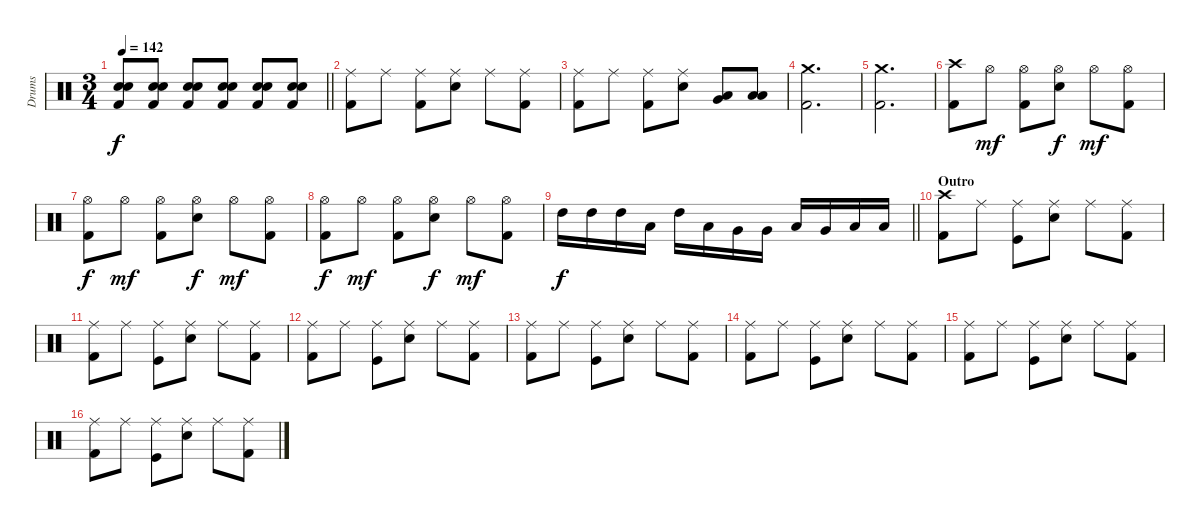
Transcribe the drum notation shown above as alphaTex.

\track ("Drums" "Drums") {instrument percussion}
\staff {score}
\articulation defaults
\ts (3 4)
\tempo 142
\clef neutral
\barLineRight lightlight
\ks c
("Electric Snare (hit)" "Snare (hit) 2" "Kick (hit) 2").8{dy f} ("Electric Snare (hit)" "Snare (hit) 2" "Kick (hit) 2").8 ("Electric Snare (hit)" "Snare (hit) 2" "Kick (hit) 2").8 ("Electric Snare (hit)" "Snare (hit) 2" "Kick (hit) 2").8 ("Electric Snare (hit)" "Snare (hit) 2" "Kick (hit) 2").8 ("Electric Snare (hit)" "Snare (hit) 2" "Kick (hit) 2").8 |
("Ride (middle)" "Kick (hit) 2").8 "Ride (middle)".8 ("Ride (middle)" "Kick (hit) 2").8 ("Ride (middle)" "Electric Snare (hit)").8 "Ride (middle)".8 ("Ride (middle)" "Kick (hit) 2").8 |
("Ride (middle)" "Kick (hit) 2").8 "Ride (middle)".8 ("Ride (middle)" "Kick (hit) 2").8 ("Ride (middle)" "Electric Snare (hit)").8 ("Low Tom (hit)" "Very Low Tom (hit)").8 ("Low Tom (hit)" "Low Floor Tom (hit)").8 |
("Crash medium (hit)" "Kick (hit) 2").2{d} |
("Crash medium (hit)" "Kick (hit) 2").2{d} |
("Crash high (hit)" "Kick (hit) 2").8 "Hi-Hat (open)".8{dy mf} ("Hi-Hat (open)" "Kick (hit) 2").8 ("Hi-Hat (open)" "Electric Snare (hit)").8{dy f} "Hi-Hat (open)".8{dy mf} ("Hi-Hat (open)" "Kick (hit) 2").8 |
("Hi-Hat (open)" "Kick (hit) 2").8{dy f} "Hi-Hat (open)".8{dy mf} ("Hi-Hat (open)" "Kick (hit) 2").8 ("Hi-Hat (open)" "Electric Snare (hit)").8{dy f} "Hi-Hat (open)".8{dy mf} ("Hi-Hat (open)" "Kick (hit) 2").8 |
("Hi-Hat (open)" "Kick (hit) 2").8{dy f} "Hi-Hat (open)".8{dy mf} ("Hi-Hat (open)" "Kick (hit) 2").8 ("Hi-Hat (open)" "Electric Snare (hit)").8{dy f} "Hi-Hat (open)".8{dy mf} ("Hi-Hat (open)" "Kick (hit) 2").8 |
\barLineRight lightlight "High Tom (hit)".16{dy f} "High Tom (hit)".16 "High Tom (hit)".16 "Low Tom (hit)".16 "High Tom (hit)".16 "Low Tom (hit)".16 "Very Low Tom (hit)".16 "Very Low Tom (hit)".16 "Low Tom (hit)".16 "Very Low Tom (hit)".16 "Low Floor Tom (hit)".16 "Low Floor Tom (hit)".16
|
\section ("" "Outro")
("Crash high (hit)" "Kick (hit) 2").8 "Ride (middle)".8 ("Ride (middle)" "Kick (hit)").8 ("Ride (middle)" "Electric Snare (hit)").8 "Ride (middle)".8 ("Ride (middle)" "Kick (hit) 2").8 |
("Ride (middle)" "Kick (hit) 2").8 "Ride (middle)".8 ("Ride (middle)" "Kick (hit)").8 ("Ride (middle)" "Electric Snare (hit)").8 "Ride (middle)".8 ("Ride (middle)" "Kick (hit) 2").8 |
("Ride (middle)" "Kick (hit) 2").8 "Ride (middle)".8 ("Ride (middle)" "Kick (hit)").8 ("Ride (middle)" "Electric Snare (hit)").8 "Ride (middle)".8 ("Ride (middle)" "Kick (hit) 2").8 |
("Ride (middle)" "Kick (hit) 2").8 "Ride (middle)".8 ("Ride (middle)" "Kick (hit)").8 ("Ride (middle)" "Electric Snare (hit)").8 "Ride (middle)".8 ("Ride (middle)" "Kick (hit) 2").8 |
("Ride (middle)" "Kick (hit) 2").8 "Ride (middle)".8 ("Ride (middle)" "Kick (hit)").8 ("Ride (middle)" "Electric Snare (hit)").8 "Ride (middle)".8 ("Ride (middle)" "Kick (hit) 2").8 |
("Ride (middle)" "Kick (hit) 2").8 "Ride (middle)".8 ("Ride (middle)" "Kick (hit)").8 ("Ride (middle)" "Electric Snare (hit)").8 "Ride (middle)".8 ("Ride (middle)" "Kick (hit) 2").8 |
("Ride (middle)" "Kick (hit) 2").8 "Ride (middle)".8 ("Ride (middle)" "Kick (hit)").8 ("Ride (middle)" "Electric Snare (hit)").8 "Ride (middle)".8 ("Ride (middle)" "Kick (hit) 2").8
